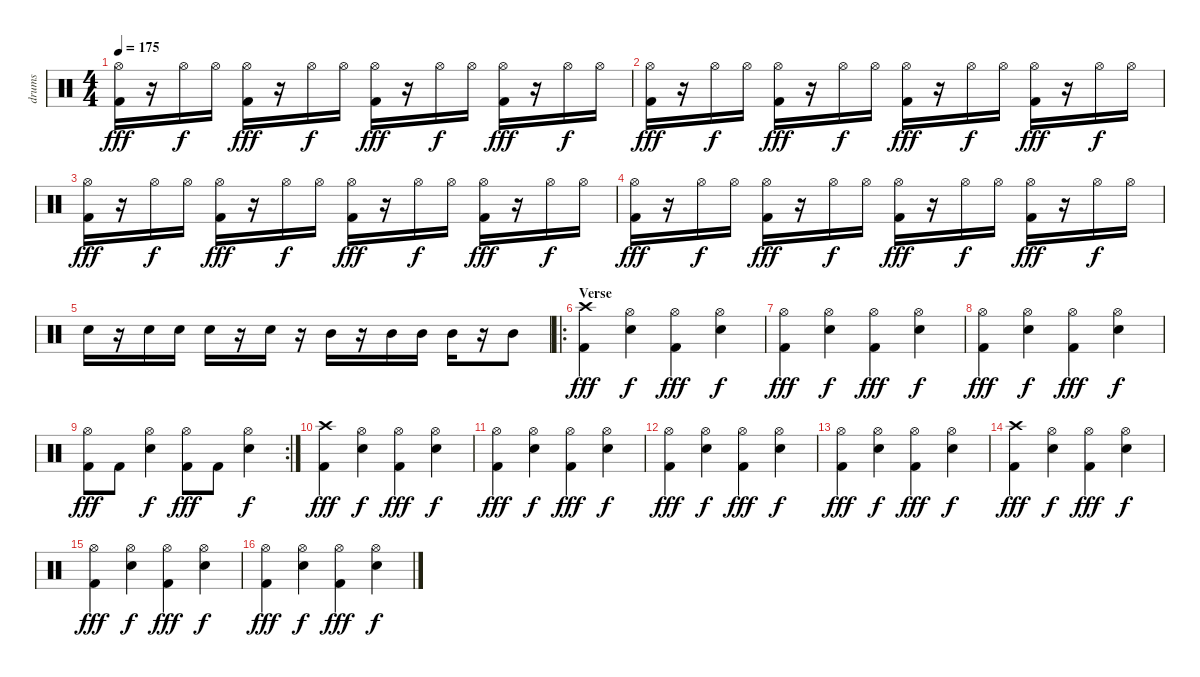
\track ("drums" "drums") {instrument percussion}
\staff {score}
\articulation defaults
\ts (4 4)
\tempo 175
\clef neutral
\ks c
("Hi-Hat (open)" "Kick (hit) 2").16{dy fff} r.16 "Hi-Hat (open)".16{dy f} "Hi-Hat (open)".16 ("Hi-Hat (open)" "Kick (hit) 2").16{dy fff} r.16 "Hi-Hat (open)".16{dy f} "Hi-Hat (open)".16 ("Hi-Hat (open)" "Kick (hit) 2").16{dy fff} r.16 "Hi-Hat (open)".16{dy f} "Hi-Hat (open)".16 ("Hi-Hat (open)" "Kick (hit) 2").16{dy fff} r.16 "Hi-Hat (open)".16{dy f} "Hi-Hat (open)".16 |
("Hi-Hat (open)" "Kick (hit) 2").16{dy fff} r.16 "Hi-Hat (open)".16{dy f} "Hi-Hat (open)".16 ("Hi-Hat (open)" "Kick (hit) 2").16{dy fff} r.16 "Hi-Hat (open)".16{dy f} "Hi-Hat (open)".16 ("Hi-Hat (open)" "Kick (hit) 2").16{dy fff} r.16 "Hi-Hat (open)".16{dy f} "Hi-Hat (open)".16 ("Hi-Hat (open)" "Kick (hit) 2").16{dy fff} r.16 "Hi-Hat (open)".16{dy f} "Hi-Hat (open)".16 |
("Hi-Hat (open)" "Kick (hit) 2").16{dy fff} r.16 "Hi-Hat (open)".16{dy f} "Hi-Hat (open)".16 ("Hi-Hat (open)" "Kick (hit) 2").16{dy fff} r.16 "Hi-Hat (open)".16{dy f} "Hi-Hat (open)".16 ("Hi-Hat (open)" "Kick (hit) 2").16{dy fff} r.16 "Hi-Hat (open)".16{dy f} "Hi-Hat (open)".16 ("Hi-Hat (open)" "Kick (hit) 2").16{dy fff} r.16 "Hi-Hat (open)".16{dy f} "Hi-Hat (open)".16 |
("Hi-Hat (open)" "Kick (hit) 2").16{dy fff} r.16 "Hi-Hat (open)".16{dy f} "Hi-Hat (open)".16 ("Hi-Hat (open)" "Kick (hit) 2").16{dy fff} r.16 "Hi-Hat (open)".16{dy f} "Hi-Hat (open)".16 ("Hi-Hat (open)" "Kick (hit) 2").16{dy fff} r.16 "Hi-Hat (open)".16{dy f} "Hi-Hat (open)".16 ("Hi-Hat (open)" "Kick (hit) 2").16{dy fff} r.16 "Hi-Hat (open)".16{dy f} "Hi-Hat (open)".16 |
"Snare (hit) 2".16 r.16 "Snare (hit) 2".16 "Snare (hit) 2".16 "Snare (hit) 2".16 r.16 "Snare (hit) 2".16 r.16 "Mid Tom (hit)".16 r.16 "Mid Tom (hit)".16 "Mid Tom (hit)".16 "Mid Tom (hit)".16 r.16 "Mid Tom (hit)".8 |
\ro
\section ("" "Verse")
("Crash high (hit)" "Kick (hit) 2").4{dy fff} ("Hi-Hat (open)" "Snare (hit) 2").4{dy f} ("Hi-Hat (open)" "Kick (hit) 2").4{dy fff} ("Hi-Hat (open)" "Snare (hit) 2").4{dy f} |
("Hi-Hat (open)" "Kick (hit) 2").4{dy fff} ("Hi-Hat (open)" "Snare (hit) 2").4{dy f} ("Hi-Hat (open)" "Kick (hit) 2").4{dy fff} ("Hi-Hat (open)" "Snare (hit) 2").4{dy f} |
("Hi-Hat (open)" "Kick (hit) 2").4{dy fff} ("Hi-Hat (open)" "Snare (hit) 2").4{dy f} ("Hi-Hat (open)" "Kick (hit) 2").4{dy fff} ("Hi-Hat (open)" "Snare (hit) 2").4{dy f} |
\rc 2
("Hi-Hat (open)" "Kick (hit) 2").8{dy fff} "Kick (hit) 2".8 ("Hi-Hat (open)" "Snare (hit) 2").4{dy f} ("Hi-Hat (open)" "Kick (hit) 2").8{dy fff} "Kick (hit) 2".8 ("Hi-Hat (open)" "Snare (hit) 2").4{dy f} |
("Crash high (hit)" "Kick (hit) 2").4{dy fff} ("Hi-Hat (open)" "Snare (hit) 2").4{dy f} ("Hi-Hat (open)" "Kick (hit) 2").4{dy fff} ("Hi-Hat (open)" "Snare (hit) 2").4{dy f} |
("Hi-Hat (open)" "Kick (hit) 2").4{dy fff} ("Hi-Hat (open)" "Snare (hit) 2").4{dy f} ("Hi-Hat (open)" "Kick (hit) 2").4{dy fff} ("Hi-Hat (open)" "Snare (hit) 2").4{dy f} |
("Hi-Hat (open)" "Kick (hit) 2").4{dy fff} ("Hi-Hat (open)" "Snare (hit) 2").4{dy f} ("Hi-Hat (open)" "Kick (hit) 2").4{dy fff} ("Hi-Hat (open)" "Snare (hit) 2").4{dy f} |
("Hi-Hat (open)" "Kick (hit) 2").4{dy fff} ("Hi-Hat (open)" "Snare (hit) 2").4{dy f} ("Hi-Hat (open)" "Kick (hit) 2").4{dy fff} ("Hi-Hat (open)" "Snare (hit) 2").4{dy f} |
("Crash high (hit)" "Kick (hit) 2").4{dy fff} ("Hi-Hat (open)" "Snare (hit) 2").4{dy f} ("Hi-Hat (open)" "Kick (hit) 2").4{dy fff} ("Hi-Hat (open)" "Snare (hit) 2").4{dy f} |
("Hi-Hat (open)" "Kick (hit) 2").4{dy fff} ("Hi-Hat (open)" "Snare (hit) 2").4{dy f} ("Hi-Hat (open)" "Kick (hit) 2").4{dy fff} ("Hi-Hat (open)" "Snare (hit) 2").4{dy f} |
("Hi-Hat (open)" "Kick (hit) 2").4{dy fff} ("Hi-Hat (open)" "Snare (hit) 2").4{dy f} ("Hi-Hat (open)" "Kick (hit) 2").4{dy fff} ("Hi-Hat (open)" "Snare (hit) 2").4{dy f}
